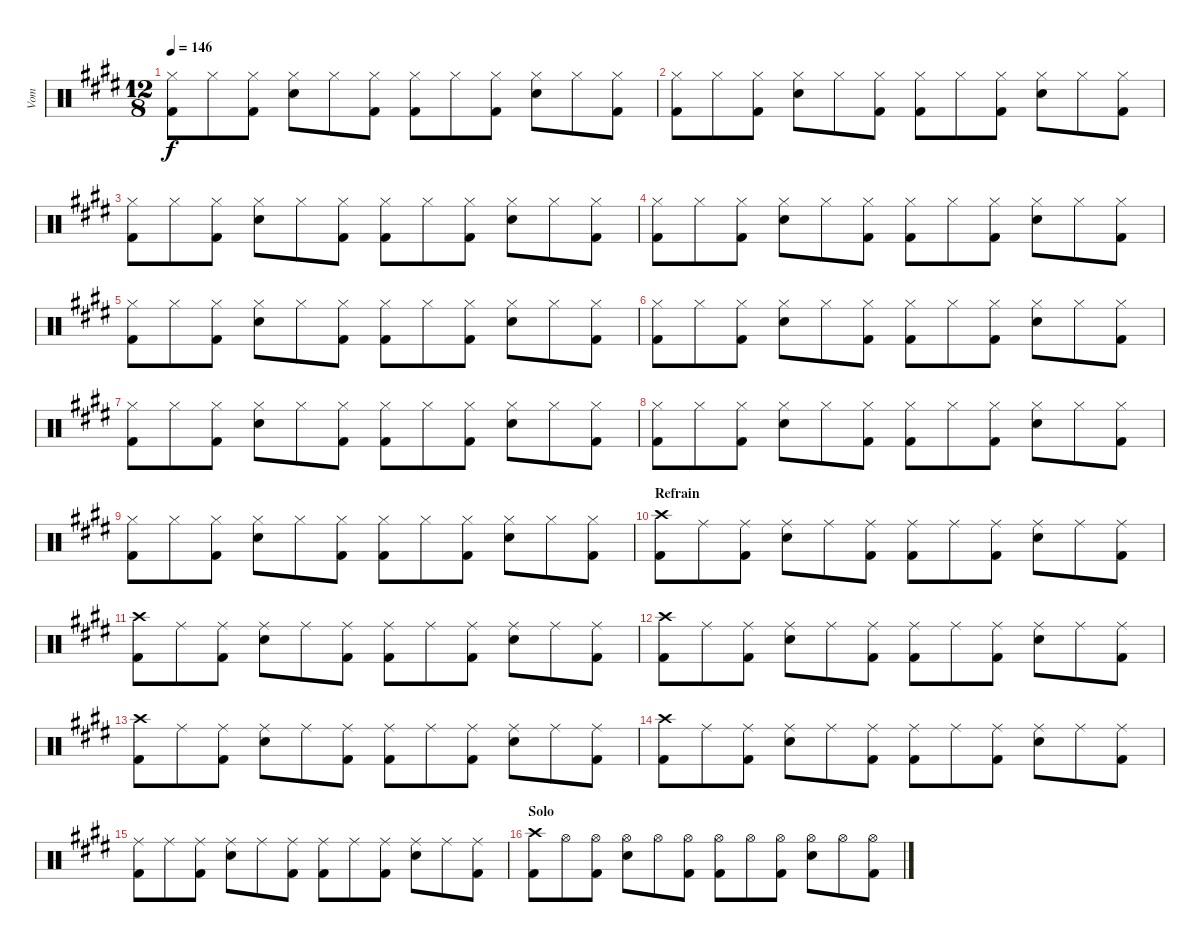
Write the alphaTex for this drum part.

\track ("Vom" "Vom") {instrument percussion}
\staff {score}
\articulation defaults
\ts (12 8)
\tempo 146
\clef neutral
\ks e
("Hi-Hat (closed)" "Kick (hit) 2").8{dy f} "Hi-Hat (closed)".8 ("Hi-Hat (closed)" "Kick (hit) 2").8 ("Hi-Hat (closed)" "Snare (hit) 2").8 "Hi-Hat (closed)".8 ("Hi-Hat (closed)" "Kick (hit) 2").8 ("Hi-Hat (closed)" "Kick (hit) 2").8 "Hi-Hat (closed)".8 ("Hi-Hat (closed)" "Kick (hit) 2").8 ("Hi-Hat (closed)" "Snare (hit) 2").8 "Hi-Hat (closed)".8 ("Hi-Hat (closed)" "Kick (hit) 2").8 |
("Hi-Hat (closed)" "Kick (hit) 2").8 "Hi-Hat (closed)".8 ("Hi-Hat (closed)" "Kick (hit) 2").8 ("Hi-Hat (closed)" "Snare (hit) 2").8 "Hi-Hat (closed)".8 ("Hi-Hat (closed)" "Kick (hit) 2").8 ("Hi-Hat (closed)" "Kick (hit) 2").8 "Hi-Hat (closed)".8 ("Hi-Hat (closed)" "Kick (hit) 2").8 ("Hi-Hat (closed)" "Snare (hit) 2").8 "Hi-Hat (closed)".8 ("Hi-Hat (closed)" "Kick (hit) 2").8 |
("Hi-Hat (closed)" "Kick (hit) 2").8 "Hi-Hat (closed)".8 ("Hi-Hat (closed)" "Kick (hit) 2").8 ("Hi-Hat (closed)" "Snare (hit) 2").8 "Hi-Hat (closed)".8 ("Hi-Hat (closed)" "Kick (hit) 2").8 ("Hi-Hat (closed)" "Kick (hit) 2").8 "Hi-Hat (closed)".8 ("Hi-Hat (closed)" "Kick (hit) 2").8 ("Hi-Hat (closed)" "Snare (hit) 2").8 "Hi-Hat (closed)".8 ("Hi-Hat (closed)" "Kick (hit) 2").8 |
("Hi-Hat (closed)" "Kick (hit) 2").8 "Hi-Hat (closed)".8 ("Hi-Hat (closed)" "Kick (hit) 2").8 ("Hi-Hat (closed)" "Snare (hit) 2").8 "Hi-Hat (closed)".8 ("Hi-Hat (closed)" "Kick (hit) 2").8 ("Hi-Hat (closed)" "Kick (hit) 2").8 "Hi-Hat (closed)".8 ("Hi-Hat (closed)" "Kick (hit) 2").8 ("Hi-Hat (closed)" "Snare (hit) 2").8 "Hi-Hat (closed)".8 ("Hi-Hat (closed)" "Kick (hit) 2").8 |
("Hi-Hat (closed)" "Kick (hit) 2").8 "Hi-Hat (closed)".8 ("Hi-Hat (closed)" "Kick (hit) 2").8 ("Hi-Hat (closed)" "Snare (hit) 2").8 "Hi-Hat (closed)".8 ("Hi-Hat (closed)" "Kick (hit) 2").8 ("Hi-Hat (closed)" "Kick (hit) 2").8 "Hi-Hat (closed)".8 ("Hi-Hat (closed)" "Kick (hit) 2").8 ("Hi-Hat (closed)" "Snare (hit) 2").8 "Hi-Hat (closed)".8 ("Hi-Hat (closed)" "Kick (hit) 2").8 |
("Hi-Hat (closed)" "Kick (hit) 2").8 "Hi-Hat (closed)".8 ("Hi-Hat (closed)" "Kick (hit) 2").8 ("Hi-Hat (closed)" "Snare (hit) 2").8 "Hi-Hat (closed)".8 ("Hi-Hat (closed)" "Kick (hit) 2").8 ("Hi-Hat (closed)" "Kick (hit) 2").8 "Hi-Hat (closed)".8 ("Hi-Hat (closed)" "Kick (hit) 2").8 ("Hi-Hat (closed)" "Snare (hit) 2").8 "Hi-Hat (closed)".8 ("Hi-Hat (closed)" "Kick (hit) 2").8 |
("Hi-Hat (closed)" "Kick (hit) 2").8 "Hi-Hat (closed)".8 ("Hi-Hat (closed)" "Kick (hit) 2").8 ("Hi-Hat (closed)" "Snare (hit) 2").8 "Hi-Hat (closed)".8 ("Hi-Hat (closed)" "Kick (hit) 2").8 ("Hi-Hat (closed)" "Kick (hit) 2").8 "Hi-Hat (closed)".8 ("Hi-Hat (closed)" "Kick (hit) 2").8 ("Hi-Hat (closed)" "Snare (hit) 2").8 "Hi-Hat (closed)".8 ("Hi-Hat (closed)" "Kick (hit) 2").8 |
("Hi-Hat (closed)" "Kick (hit) 2").8 "Hi-Hat (closed)".8 ("Hi-Hat (closed)" "Kick (hit) 2").8 ("Hi-Hat (closed)" "Snare (hit) 2").8 "Hi-Hat (closed)".8 ("Hi-Hat (closed)" "Kick (hit) 2").8 ("Hi-Hat (closed)" "Kick (hit) 2").8 "Hi-Hat (closed)".8 ("Hi-Hat (closed)" "Kick (hit) 2").8 ("Hi-Hat (closed)" "Snare (hit) 2").8 "Hi-Hat (closed)".8 ("Hi-Hat (closed)" "Kick (hit) 2").8 |
("Hi-Hat (closed)" "Kick (hit) 2").8 "Hi-Hat (closed)".8 ("Hi-Hat (closed)" "Kick (hit) 2").8 ("Hi-Hat (closed)" "Snare (hit) 2").8 "Hi-Hat (closed)".8 ("Hi-Hat (closed)" "Kick (hit) 2").8 ("Hi-Hat (closed)" "Kick (hit) 2").8 "Hi-Hat (closed)".8 ("Hi-Hat (closed)" "Kick (hit) 2").8 ("Hi-Hat (closed)" "Snare (hit) 2").8 "Hi-Hat (closed)".8 ("Hi-Hat (closed)" "Kick (hit) 2").8 |
\section ("" "Refrain")
("Crash high (hit)" "Kick (hit) 2").8 "Ride (middle)".8 ("Ride (middle)" "Kick (hit) 2").8 ("Ride (middle)" "Snare (hit) 2").8 "Ride (middle)".8 ("Ride (middle)" "Kick (hit) 2").8 ("Ride (middle)" "Kick (hit) 2").8 "Ride (middle)".8 ("Ride (middle)" "Kick (hit) 2").8 ("Ride (middle)" "Snare (hit) 2").8 "Ride (middle)".8 ("Ride (middle)" "Kick (hit) 2").8 |
("Crash high (hit)" "Kick (hit) 2").8 "Ride (middle)".8 ("Ride (middle)" "Kick (hit) 2").8 ("Ride (middle)" "Snare (hit) 2").8 "Ride (middle)".8 ("Ride (middle)" "Kick (hit) 2").8 ("Ride (middle)" "Kick (hit) 2").8 "Ride (middle)".8 ("Ride (middle)" "Kick (hit) 2").8 ("Ride (middle)" "Snare (hit) 2").8 "Ride (middle)".8 ("Ride (middle)" "Kick (hit) 2").8 |
("Crash high (hit)" "Kick (hit) 2").8 "Ride (middle)".8 ("Ride (middle)" "Kick (hit) 2").8 ("Ride (middle)" "Snare (hit) 2").8 "Ride (middle)".8 ("Ride (middle)" "Kick (hit) 2").8 ("Ride (middle)" "Kick (hit) 2").8 "Ride (middle)".8 ("Ride (middle)" "Kick (hit) 2").8 ("Ride (middle)" "Snare (hit) 2").8 "Ride (middle)".8 ("Ride (middle)" "Kick (hit) 2").8 |
("Crash high (hit)" "Kick (hit) 2").8 "Ride (middle)".8 ("Ride (middle)" "Kick (hit) 2").8 ("Ride (middle)" "Snare (hit) 2").8 "Ride (middle)".8 ("Ride (middle)" "Kick (hit) 2").8 ("Ride (middle)" "Kick (hit) 2").8 "Ride (middle)".8 ("Ride (middle)" "Kick (hit) 2").8 ("Ride (middle)" "Snare (hit) 2").8 "Ride (middle)".8 ("Ride (middle)" "Kick (hit) 2").8 |
("Crash high (hit)" "Kick (hit) 2").8 "Ride (middle)".8 ("Ride (middle)" "Kick (hit) 2").8 ("Ride (middle)" "Snare (hit) 2").8 "Ride (middle)".8 ("Ride (middle)" "Kick (hit) 2").8 ("Ride (middle)" "Kick (hit) 2").8 "Ride (middle)".8 ("Ride (middle)" "Kick (hit) 2").8 ("Ride (middle)" "Snare (hit) 2").8 "Ride (middle)".8 ("Ride (middle)" "Kick (hit) 2").8 |
("Ride (middle)" "Kick (hit) 2").8 "Ride (middle)".8 ("Ride (middle)" "Kick (hit) 2").8 ("Ride (middle)" "Snare (hit) 2").8 "Ride (middle)".8 ("Ride (middle)" "Kick (hit) 2").8 ("Ride (middle)" "Kick (hit) 2").8 "Ride (middle)".8 ("Ride (middle)" "Kick (hit) 2").8 ("Ride (middle)" "Snare (hit) 2").8 "Ride (middle)".8 ("Ride (middle)" "Kick (hit) 2").8 |
\section ("" "Solo")
("Crash high (hit)" "Kick (hit) 2").8 "Hi-Hat (open)".8 ("Hi-Hat (open)" "Kick (hit) 2").8 ("Hi-Hat (open)" "Snare (hit) 2").8 "Hi-Hat (open)".8 ("Hi-Hat (open)" "Kick (hit) 2").8 ("Hi-Hat (open)" "Kick (hit) 2").8 "Hi-Hat (open)".8 ("Hi-Hat (open)" "Kick (hit) 2").8 ("Hi-Hat (open)" "Snare (hit) 2").8 "Hi-Hat (open)".8 ("Hi-Hat (open)" "Kick (hit) 2").8
